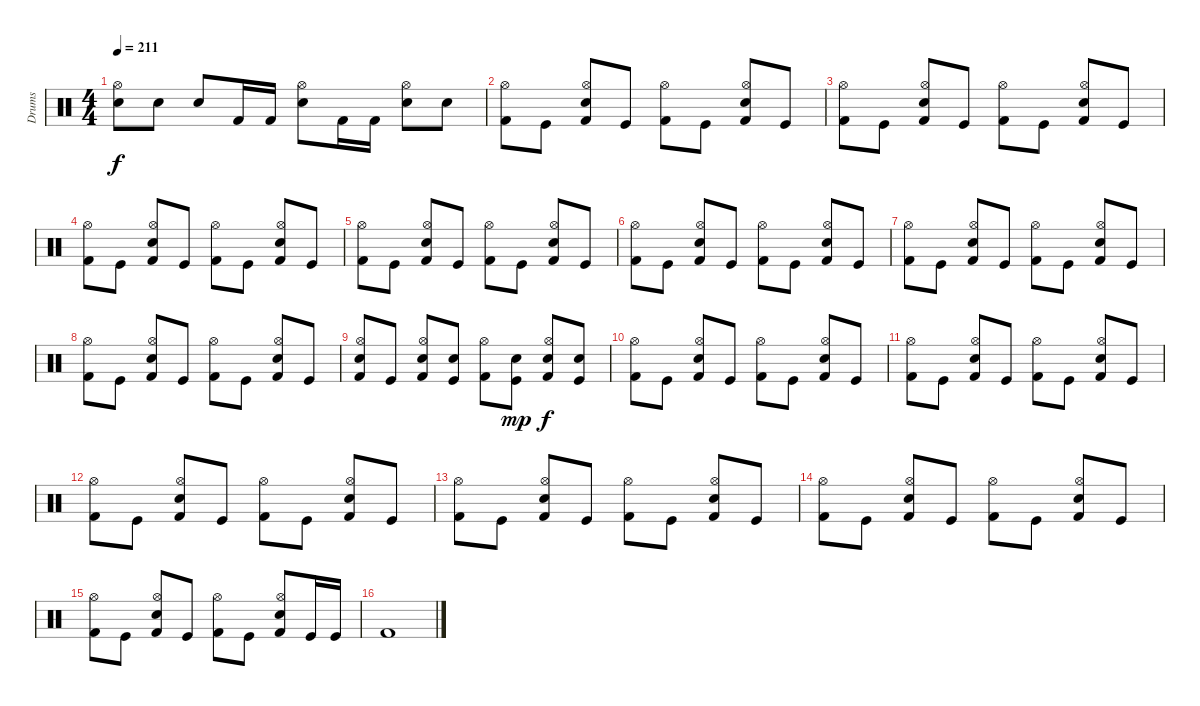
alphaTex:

\track ("Drums" "Drums") {instrument percussion}
\staff {score}
\articulation defaults
\ts (4 4)
\tempo 211
\clef neutral
\ks c
("Snare (hit) 2" "Hi-Hat (open)").8{dy f} "Snare (hit) 2".8 "Snare (hit) 2".8 "Kick (hit) 2".16 "Kick (hit) 2".16 ("Snare (hit) 2" "Hi-Hat (open)").8 "Kick (hit) 2".16 "Kick (hit) 2".16 ("Snare (hit) 2" "Hi-Hat (open)").8 "Snare (hit) 2".8 |
("Kick (hit) 2" "Hi-Hat (open)").8 "Kick (hit)".8 ("Kick (hit) 2" "Snare (hit) 2" "Hi-Hat (open)").8 "Kick (hit)".8 ("Kick (hit) 2" "Hi-Hat (open)").8 "Kick (hit)".8 ("Kick (hit) 2" "Snare (hit) 2" "Hi-Hat (open)").8 "Kick (hit)".8 |
("Kick (hit) 2" "Hi-Hat (open)").8 "Kick (hit)".8 ("Kick (hit) 2" "Snare (hit) 2" "Hi-Hat (open)").8 "Kick (hit)".8 ("Kick (hit) 2" "Hi-Hat (open)").8 "Kick (hit)".8 ("Kick (hit) 2" "Snare (hit) 2" "Hi-Hat (open)").8 "Kick (hit)".8 |
("Kick (hit) 2" "Hi-Hat (open)").8 "Kick (hit)".8 ("Kick (hit) 2" "Snare (hit) 2" "Hi-Hat (open)").8 "Kick (hit)".8 ("Kick (hit) 2" "Hi-Hat (open)").8 "Kick (hit)".8 ("Kick (hit) 2" "Snare (hit) 2" "Hi-Hat (open)").8 "Kick (hit)".8 |
("Kick (hit) 2" "Hi-Hat (open)").8 "Kick (hit)".8 ("Kick (hit) 2" "Snare (hit) 2" "Hi-Hat (open)").8 "Kick (hit)".8 ("Kick (hit) 2" "Hi-Hat (open)").8 "Kick (hit)".8 ("Kick (hit) 2" "Snare (hit) 2" "Hi-Hat (open)").8 "Kick (hit)".8 |
("Kick (hit) 2" "Hi-Hat (open)").8 "Kick (hit)".8 ("Kick (hit) 2" "Snare (hit) 2" "Hi-Hat (open)").8 "Kick (hit)".8 ("Kick (hit) 2" "Hi-Hat (open)").8 "Kick (hit)".8 ("Kick (hit) 2" "Snare (hit) 2" "Hi-Hat (open)").8 "Kick (hit)".8 |
("Kick (hit) 2" "Hi-Hat (open)").8 "Kick (hit)".8 ("Kick (hit) 2" "Snare (hit) 2" "Hi-Hat (open)").8 "Kick (hit)".8 ("Kick (hit) 2" "Hi-Hat (open)").8 "Kick (hit)".8 ("Kick (hit) 2" "Snare (hit) 2" "Hi-Hat (open)").8 "Kick (hit)".8 |
("Kick (hit) 2" "Hi-Hat (open)").8 "Kick (hit)".8 ("Kick (hit) 2" "Snare (hit) 2" "Hi-Hat (open)").8 "Kick (hit)".8 ("Kick (hit) 2" "Hi-Hat (open)").8 "Kick (hit)".8 ("Kick (hit) 2" "Snare (hit) 2" "Hi-Hat (open)").8 "Kick (hit)".8 |
("Kick (hit) 2" "Snare (hit) 2" "Hi-Hat (open)").8 "Kick (hit)".8 ("Kick (hit) 2" "Snare (hit) 2" "Hi-Hat (open)").8 ("Kick (hit)" "Snare (hit) 2").8 ("Kick (hit) 2" "Hi-Hat (open)").8 ("Kick (hit)" "Snare (hit) 2").8{dy mp} ("Kick (hit) 2" "Snare (hit) 2" "Hi-Hat (open)").8{dy f} ("Kick (hit)" "Snare (hit) 2").8 |
("Kick (hit) 2" "Hi-Hat (open)").8 "Kick (hit)".8 ("Kick (hit) 2" "Snare (hit) 2" "Hi-Hat (open)").8 "Kick (hit)".8 ("Kick (hit) 2" "Hi-Hat (open)").8 "Kick (hit)".8 ("Kick (hit) 2" "Snare (hit) 2" "Hi-Hat (open)").8 "Kick (hit)".8 |
("Kick (hit) 2" "Hi-Hat (open)").8 "Kick (hit)".8 ("Kick (hit) 2" "Snare (hit) 2" "Hi-Hat (open)").8 "Kick (hit)".8 ("Kick (hit) 2" "Hi-Hat (open)").8 "Kick (hit)".8 ("Kick (hit) 2" "Snare (hit) 2" "Hi-Hat (open)").8 "Kick (hit)".8 |
("Kick (hit) 2" "Hi-Hat (open)").8 "Kick (hit)".8 ("Kick (hit) 2" "Snare (hit) 2" "Hi-Hat (open)").8 "Kick (hit)".8 ("Kick (hit) 2" "Hi-Hat (open)").8 "Kick (hit)".8 ("Kick (hit) 2" "Snare (hit) 2" "Hi-Hat (open)").8 "Kick (hit)".8 |
("Kick (hit) 2" "Hi-Hat (open)").8 "Kick (hit)".8 ("Kick (hit) 2" "Snare (hit) 2" "Hi-Hat (open)").8 "Kick (hit)".8 ("Kick (hit) 2" "Hi-Hat (open)").8 "Kick (hit)".8 ("Kick (hit) 2" "Snare (hit) 2" "Hi-Hat (open)").8 "Kick (hit)".8 |
("Kick (hit) 2" "Hi-Hat (open)").8 "Kick (hit)".8 ("Kick (hit) 2" "Snare (hit) 2" "Hi-Hat (open)").8 "Kick (hit)".8 ("Kick (hit) 2" "Hi-Hat (open)").8 "Kick (hit)".8 ("Kick (hit) 2" "Snare (hit) 2" "Hi-Hat (open)").8 "Kick (hit)".8 |
("Kick (hit) 2" "Hi-Hat (open)").8 "Kick (hit)".8 ("Kick (hit) 2" "Snare (hit) 2" "Hi-Hat (open)").8 "Kick (hit)".8 ("Kick (hit) 2" "Hi-Hat (open)").8 "Kick (hit)".8 ("Kick (hit) 2" "Snare (hit) 2" "Hi-Hat (open)").8 "Kick (hit)".16 "Kick (hit)".16 |
"Kick (hit) 2".1
